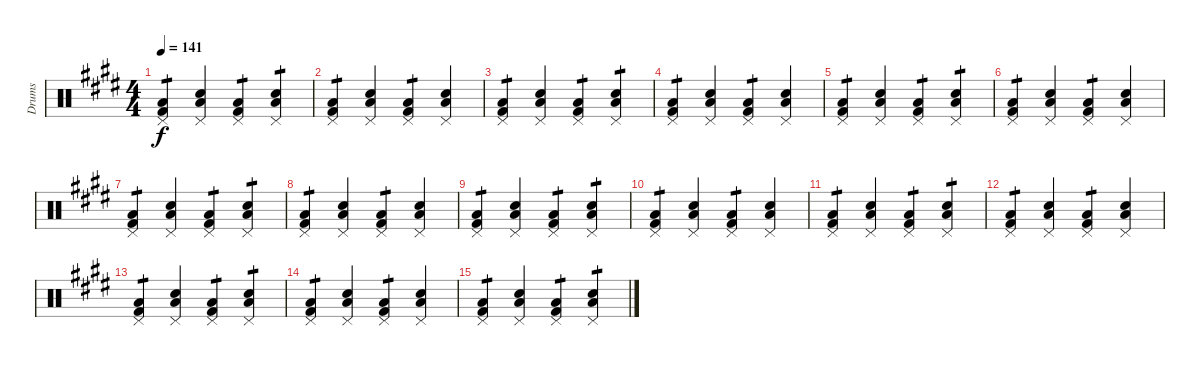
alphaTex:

\track ("Drums" "Drums") {instrument percussion}
\staff {score}
\articulation defaults
\ts (4 4)
\tempo 141
\clef neutral
\ks e
("Kick (hit) 2" "Pedal Hi-Hat (hit)" "Low Floor Tom (hit)").4{tp 1 dy f} ("Snare (hit) 2" "Pedal Hi-Hat (hit)" "Low Floor Tom (hit)").4 ("Kick (hit) 2" "Pedal Hi-Hat (hit)" "Low Floor Tom (hit)").4{tp 1} ("Snare (hit) 2" "Pedal Hi-Hat (hit)" "Low Floor Tom (hit)").4{tp 1} |
("Kick (hit) 2" "Pedal Hi-Hat (hit)" "Low Floor Tom (hit)").4{tp 1} ("Snare (hit) 2" "Pedal Hi-Hat (hit)" "Low Floor Tom (hit)").4 ("Kick (hit) 2" "Pedal Hi-Hat (hit)" "Low Floor Tom (hit)").4{tp 1} ("Snare (hit) 2" "Pedal Hi-Hat (hit)" "Low Floor Tom (hit)").4 |
("Kick (hit) 2" "Pedal Hi-Hat (hit)" "Low Floor Tom (hit)").4{tp 1} ("Snare (hit) 2" "Pedal Hi-Hat (hit)" "Low Floor Tom (hit)").4 ("Kick (hit) 2" "Pedal Hi-Hat (hit)" "Low Floor Tom (hit)").4{tp 1} ("Snare (hit) 2" "Pedal Hi-Hat (hit)" "Low Floor Tom (hit)").4{tp 1} |
("Kick (hit) 2" "Pedal Hi-Hat (hit)" "Low Floor Tom (hit)").4{tp 1} ("Snare (hit) 2" "Pedal Hi-Hat (hit)" "Low Floor Tom (hit)").4 ("Kick (hit) 2" "Pedal Hi-Hat (hit)" "Low Floor Tom (hit)").4{tp 1} ("Snare (hit) 2" "Pedal Hi-Hat (hit)" "Low Floor Tom (hit)").4 |
("Kick (hit) 2" "Pedal Hi-Hat (hit)" "Low Floor Tom (hit)").4{tp 1} ("Snare (hit) 2" "Pedal Hi-Hat (hit)" "Low Floor Tom (hit)").4 ("Kick (hit) 2" "Pedal Hi-Hat (hit)" "Low Floor Tom (hit)").4{tp 1} ("Snare (hit) 2" "Pedal Hi-Hat (hit)" "Low Floor Tom (hit)").4{tp 1} |
("Kick (hit) 2" "Pedal Hi-Hat (hit)" "Low Floor Tom (hit)").4{tp 1} ("Snare (hit) 2" "Pedal Hi-Hat (hit)" "Low Floor Tom (hit)").4 ("Kick (hit) 2" "Pedal Hi-Hat (hit)" "Low Floor Tom (hit)").4{tp 1} ("Snare (hit) 2" "Pedal Hi-Hat (hit)" "Low Floor Tom (hit)").4 |
("Kick (hit) 2" "Pedal Hi-Hat (hit)" "Low Floor Tom (hit)").4{tp 1} ("Snare (hit) 2" "Pedal Hi-Hat (hit)" "Low Floor Tom (hit)").4 ("Kick (hit) 2" "Pedal Hi-Hat (hit)" "Low Floor Tom (hit)").4{tp 1} ("Snare (hit) 2" "Pedal Hi-Hat (hit)" "Low Floor Tom (hit)").4{tp 1} |
("Kick (hit) 2" "Pedal Hi-Hat (hit)" "Low Floor Tom (hit)").4{tp 1} ("Snare (hit) 2" "Pedal Hi-Hat (hit)" "Low Floor Tom (hit)").4 ("Kick (hit) 2" "Pedal Hi-Hat (hit)" "Low Floor Tom (hit)").4{tp 1} ("Snare (hit) 2" "Pedal Hi-Hat (hit)" "Low Floor Tom (hit)").4 |
("Kick (hit) 2" "Pedal Hi-Hat (hit)" "Low Floor Tom (hit)").4{tp 1} ("Snare (hit) 2" "Pedal Hi-Hat (hit)" "Low Floor Tom (hit)").4 ("Kick (hit) 2" "Pedal Hi-Hat (hit)" "Low Floor Tom (hit)").4{tp 1} ("Snare (hit) 2" "Pedal Hi-Hat (hit)" "Low Floor Tom (hit)").4{tp 1} |
("Kick (hit) 2" "Pedal Hi-Hat (hit)" "Low Floor Tom (hit)").4{tp 1} ("Snare (hit) 2" "Pedal Hi-Hat (hit)" "Low Floor Tom (hit)").4 ("Kick (hit) 2" "Pedal Hi-Hat (hit)" "Low Floor Tom (hit)").4{tp 1} ("Snare (hit) 2" "Pedal Hi-Hat (hit)" "Low Floor Tom (hit)").4 |
("Kick (hit) 2" "Pedal Hi-Hat (hit)" "Low Floor Tom (hit)").4{tp 1} ("Snare (hit) 2" "Pedal Hi-Hat (hit)" "Low Floor Tom (hit)").4 ("Kick (hit) 2" "Pedal Hi-Hat (hit)" "Low Floor Tom (hit)").4{tp 1} ("Snare (hit) 2" "Pedal Hi-Hat (hit)" "Low Floor Tom (hit)").4{tp 1} |
("Kick (hit) 2" "Pedal Hi-Hat (hit)" "Low Floor Tom (hit)").4{tp 1} ("Snare (hit) 2" "Pedal Hi-Hat (hit)" "Low Floor Tom (hit)").4 ("Kick (hit) 2" "Pedal Hi-Hat (hit)" "Low Floor Tom (hit)").4{tp 1} ("Snare (hit) 2" "Pedal Hi-Hat (hit)" "Low Floor Tom (hit)").4 |
("Kick (hit) 2" "Pedal Hi-Hat (hit)" "Low Floor Tom (hit)").4{tp 1} ("Snare (hit) 2" "Pedal Hi-Hat (hit)" "Low Floor Tom (hit)").4 ("Kick (hit) 2" "Pedal Hi-Hat (hit)" "Low Floor Tom (hit)").4{tp 1} ("Snare (hit) 2" "Pedal Hi-Hat (hit)" "Low Floor Tom (hit)").4{tp 1} |
("Kick (hit) 2" "Pedal Hi-Hat (hit)" "Low Floor Tom (hit)").4{tp 1} ("Snare (hit) 2" "Pedal Hi-Hat (hit)" "Low Floor Tom (hit)").4 ("Kick (hit) 2" "Pedal Hi-Hat (hit)" "Low Floor Tom (hit)").4{tp 1} ("Snare (hit) 2" "Pedal Hi-Hat (hit)" "Low Floor Tom (hit)").4 |
("Kick (hit) 2" "Pedal Hi-Hat (hit)" "Low Floor Tom (hit)").4{tp 1} ("Snare (hit) 2" "Pedal Hi-Hat (hit)" "Low Floor Tom (hit)").4 ("Kick (hit) 2" "Pedal Hi-Hat (hit)" "Low Floor Tom (hit)").4{tp 1} ("Snare (hit) 2" "Pedal Hi-Hat (hit)" "Low Floor Tom (hit)").4{tp 1}
